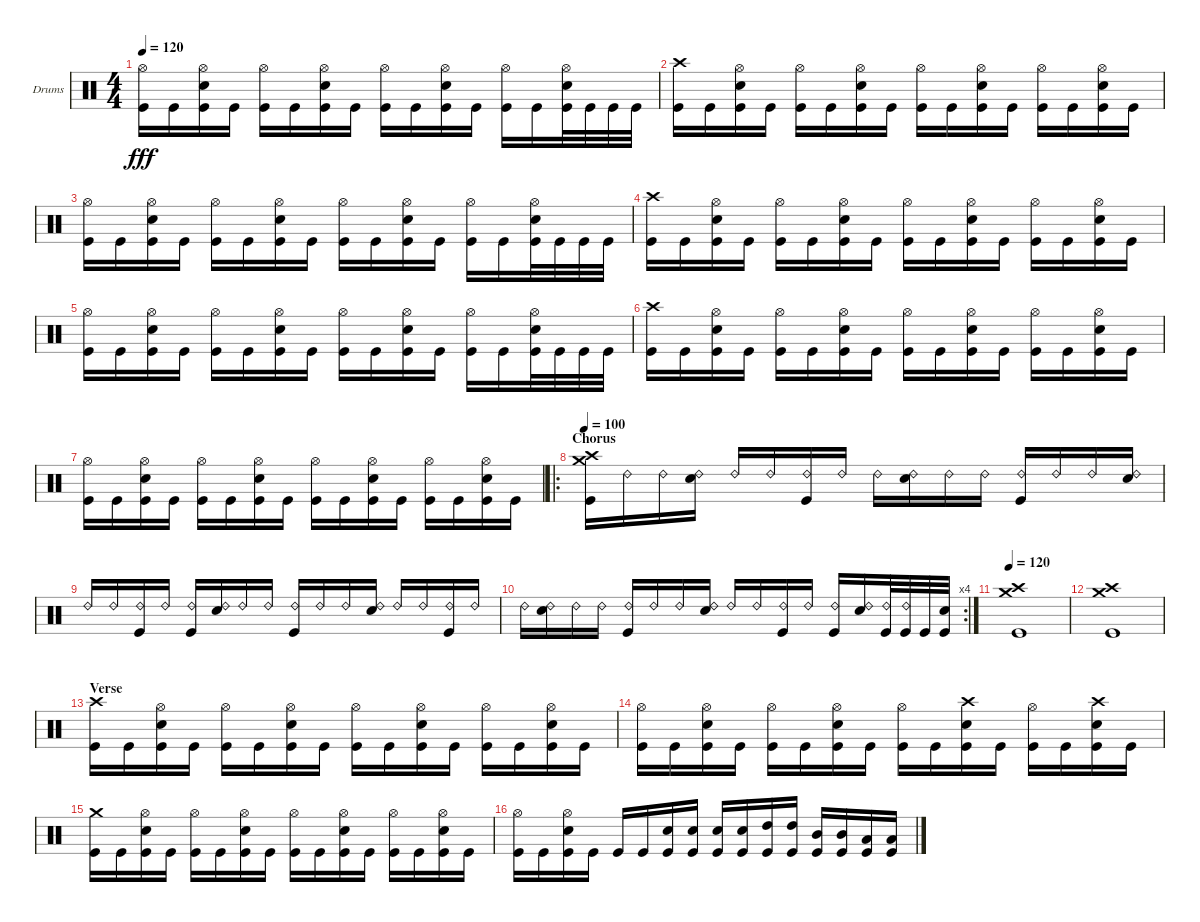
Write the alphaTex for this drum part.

\defaultSystemsLayout 4
\bracketExtendMode groupsimilarinstruments
\firstSystemTrackNameOrientation horizontal
\otherSystemsTrackNameOrientation horizontal
\track ("Jon Larsen" "Drums") {instrument percussion}
\staff {score}
\articulation defaults
\ts (4 4)
\tempo 120
\clef neutral
\scale
0.333333
\ks c
("Kick (hit)" "Hi-Hat (open)").16{dy fff} "Kick (hit)".16 ("Kick (hit)" "Snare (hit) 2" "Hi-Hat (open)").16 "Kick (hit)".16 ("Kick (hit)" "Hi-Hat (open)").16 "Kick (hit)".16 ("Kick (hit)" "Snare (hit) 2" "Hi-Hat (open)").16 "Kick (hit)".16 ("Kick (hit)" "Hi-Hat (open)").16 "Kick (hit)".16 ("Kick (hit)" "Snare (hit) 2" "Hi-Hat (open)").16 "Kick (hit)".16 ("Kick (hit)" "Hi-Hat (open)").16 "Kick (hit)".16 ("Kick (hit)" "Snare (hit) 2" "Hi-Hat (open)").32 "Kick (hit)".32 "Kick (hit)".32 "Kick (hit)".32 |
\scale
0.333333 ("Kick (hit)" "Crash high (hit)").16 "Kick (hit)".16 ("Kick (hit)" "Hi-Hat (open)" "Snare (hit) 2").16 "Kick (hit)".16 ("Kick (hit)" "Hi-Hat (open)").16 "Kick (hit)".16 ("Kick (hit)" "Hi-Hat (open)" "Snare (hit) 2").16 "Kick (hit)".16 ("Kick (hit)" "Hi-Hat (open)").16 "Kick (hit)".16 ("Kick (hit)" "Hi-Hat (open)" "Snare (hit) 2").16 "Kick (hit)".16 ("Kick (hit)" "Hi-Hat (open)").16 "Kick (hit)".16 ("Kick (hit)" "Hi-Hat (open)" "Snare (hit) 2").16 "Kick (hit)".16 |
\scale
0.333333 ("Kick (hit)" "Hi-Hat (open)").16 "Kick (hit)".16 ("Kick (hit)" "Snare (hit) 2" "Hi-Hat (open)").16 "Kick (hit)".16 ("Kick (hit)" "Hi-Hat (open)").16 "Kick (hit)".16 ("Kick (hit)" "Snare (hit) 2" "Hi-Hat (open)").16 "Kick (hit)".16 ("Kick (hit)" "Hi-Hat (open)").16 "Kick (hit)".16 ("Kick (hit)" "Snare (hit) 2" "Hi-Hat (open)").16 "Kick (hit)".16 ("Kick (hit)" "Hi-Hat (open)").16 "Kick (hit)".16 ("Kick (hit)" "Snare (hit) 2" "Hi-Hat (open)").32 "Kick (hit)".32 "Kick (hit)".32 "Kick (hit)".32 |
\scale
0.333333 ("Kick (hit)" "Crash high (hit)").16 "Kick (hit)".16 ("Kick (hit)" "Hi-Hat (open)" "Snare (hit) 2").16 "Kick (hit)".16 ("Kick (hit)" "Hi-Hat (open)").16 "Kick (hit)".16 ("Kick (hit)" "Hi-Hat (open)" "Snare (hit) 2").16 "Kick (hit)".16 ("Kick (hit)" "Hi-Hat (open)").16 "Kick (hit)".16 ("Kick (hit)" "Hi-Hat (open)" "Snare (hit) 2").16 "Kick (hit)".16 ("Kick (hit)" "Hi-Hat (open)").16 "Kick (hit)".16 ("Kick (hit)" "Hi-Hat (open)" "Snare (hit) 2").16 "Kick (hit)".16 |
\scale
0.333333 ("Kick (hit)" "Hi-Hat (open)").16 "Kick (hit)".16 ("Kick (hit)" "Snare (hit) 2" "Hi-Hat (open)").16 "Kick (hit)".16 ("Kick (hit)" "Hi-Hat (open)").16 "Kick (hit)".16 ("Kick (hit)" "Snare (hit) 2" "Hi-Hat (open)").16 "Kick (hit)".16 ("Kick (hit)" "Hi-Hat (open)").16 "Kick (hit)".16 ("Kick (hit)" "Snare (hit) 2" "Hi-Hat (open)").16 "Kick (hit)".16 ("Kick (hit)" "Hi-Hat (open)").16 "Kick (hit)".16 ("Kick (hit)" "Snare (hit) 2" "Hi-Hat (open)").32 "Kick (hit)".32 "Kick (hit)".32 "Kick (hit)".32 |
\scale
0.333333 ("Kick (hit)" "Crash high (hit)").16 "Kick (hit)".16 ("Kick (hit)" "Hi-Hat (open)" "Snare (hit) 2").16 "Kick (hit)".16 ("Kick (hit)" "Hi-Hat (open)").16 "Kick (hit)".16 ("Kick (hit)" "Hi-Hat (open)" "Snare (hit) 2").16 "Kick (hit)".16 ("Kick (hit)" "Hi-Hat (open)").16 "Kick (hit)".16 ("Kick (hit)" "Hi-Hat (open)" "Snare (hit) 2").16 "Kick (hit)".16 ("Kick (hit)" "Hi-Hat (open)").16 "Kick (hit)".16 ("Kick (hit)" "Hi-Hat (open)" "Snare (hit) 2").16 "Kick (hit)".16 |
\scale
0.333333 ("Kick (hit)" "Hi-Hat (open)").16 "Kick (hit)".16 ("Kick (hit)" "Snare (hit) 2" "Hi-Hat (open)").16 "Kick (hit)".16 ("Kick (hit)" "Hi-Hat (open)").16 "Kick (hit)".16 ("Kick (hit)" "Snare (hit) 2" "Hi-Hat (open)").16 "Kick (hit)".16 ("Kick (hit)" "Hi-Hat (open)").16 "Kick (hit)".16 ("Kick (hit)" "Snare (hit) 2" "Hi-Hat (open)").16 "Kick (hit)".16 ("Kick (hit)" "Hi-Hat (open)").16 "Kick (hit)".16 ("Kick (hit)" "Snare (hit) 2" "Hi-Hat (open)").16 "Kick (hit)".16 |
\ro
\section ("" "Chorus")
\tempo 100
\scale
0.365591 ("Crash medium (hit)" "Crash high (hit)" "Kick (hit)").16 "Ride (bell) 2".16 "Ride (bell) 2".16 ("Ride (bell) 2" "Snare (hit) 2").16 "Ride (bell) 2".16 "Ride (bell) 2".16 ("Ride (bell) 2" "Kick (hit)").16 "Ride (bell) 2".16 "Ride (bell) 2".16 ("Ride (bell) 2" "Snare (hit) 2").16 "Ride (bell) 2".16 "Ride (bell) 2".16 ("Ride (bell) 2" "Kick (hit)").16 "Ride (bell) 2".16 "Ride (bell) 2".16 ("Ride (bell) 2" "Snare (hit) 2").16 |
\scale
0.301075 "Ride (bell) 2".16 "Ride (bell) 2".16 ("Ride (bell) 2" "Kick (hit)").16 "Ride (bell) 2".16 ("Ride (bell) 2" "Kick (hit)").16 ("Ride (bell) 2" "Snare (hit) 2").16 "Ride (bell) 2".16 "Ride (bell) 2".16 ("Ride (bell) 2" "Kick (hit)").16 "Ride (bell) 2".16 "Ride (bell) 2".16 ("Ride (bell) 2" "Snare (hit) 2").16 "Ride (bell) 2".16 "Ride (bell) 2".16 ("Ride (bell) 2" "Kick (hit)").16 "Ride (bell) 2".16 |
\rc 4
\scale
0.333333 "Ride (bell) 2".16 ("Ride (bell) 2" "Snare (hit) 2").16 "Ride (bell) 2".16 "Ride (bell) 2".16 ("Ride (bell) 2" "Kick (hit)").16 "Ride (bell) 2".16 "Ride (bell) 2".16 ("Ride (bell) 2" "Snare (hit) 2").16 "Ride (bell) 2".16 "Ride (bell) 2".16 ("Ride (bell) 2" "Kick (hit)").16 "Ride (bell) 2".16 ("Ride (bell) 2" "Kick (hit)").16 ("Ride (bell) 2" "Snare (hit) 2").16 ("Ride (bell) 2" "Kick (hit)").32 ("Ride (bell) 2" "Kick (hit)").32 "Kick (hit)".32 ("Kick (hit)" "Snare (hit) 2").32 |
\tempo 120
\scale
0.333333 ("Kick (hit)" "Crash medium (hit)" "Crash high (hit)").1 |
\scale
0.333333 ("Crash high (hit)" "Crash medium (hit)" "Kick (hit)").1 |
\section ("" "Verse")
\scale
0.333333 ("Kick (hit)" "Crash high (hit)").16 "Kick (hit)".16 ("Kick (hit)" "Hi-Hat (open)" "Snare (hit) 2").16 "Kick (hit)".16 ("Kick (hit)" "Hi-Hat (open)").16 "Kick (hit)".16 ("Kick (hit)" "Hi-Hat (open)" "Snare (hit) 2").16 "Kick (hit)".16 ("Kick (hit)" "Hi-Hat (open)").16 "Kick (hit)".16 ("Kick (hit)" "Hi-Hat (open)" "Snare (hit) 2").16 "Kick (hit)".16 ("Kick (hit)" "Hi-Hat (open)").16 "Kick (hit)".16 ("Kick (hit)" "Hi-Hat (open)" "Snare (hit) 2").16 "Kick (hit)".16 |
\scale
0.333333 ("Kick (hit)" "Hi-Hat (open)").16 "Kick (hit)".16 ("Kick (hit)" "Snare (hit) 2" "Hi-Hat (open)").16 "Kick (hit)".16 ("Kick (hit)" "Hi-Hat (open)").16 "Kick (hit)".16 ("Kick (hit)" "Snare (hit) 2" "Hi-Hat (open)").16 "Kick (hit)".16 ("Kick (hit)" "Hi-Hat (open)").16 "Kick (hit)".16 ("Kick (hit)" "Snare (hit) 2" "Crash high (hit)").16 "Kick (hit)".16 ("Kick (hit)" "Hi-Hat (open)").16 "Kick (hit)".16 ("Kick (hit)" "Snare (hit) 2" "Crash high (hit)").16 "Kick (hit)".16 |
\scale
0.333333 ("Kick (hit)" "Crash medium (hit)").16 "Kick (hit)".16 ("Kick (hit)" "Snare (hit) 2" "Hi-Hat (open)").16 "Kick (hit)".16 ("Kick (hit)" "Hi-Hat (open)").16 "Kick (hit)".16 ("Kick (hit)" "Snare (hit) 2" "Hi-Hat (open)").16 "Kick (hit)".16 ("Kick (hit)" "Hi-Hat (open)").16 "Kick (hit)".16 ("Kick (hit)" "Snare (hit) 2" "Hi-Hat (open)").16 "Kick (hit)".16 ("Kick (hit)" "Hi-Hat (open)").16 "Kick (hit)".16 ("Kick (hit)" "Snare (hit) 2" "Hi-Hat (open)").16 "Kick (hit)".16 |
\scale
0.333333 ("Kick (hit)" "Hi-Hat (open)").16 "Kick (hit)".16 ("Kick (hit)" "Hi-Hat (open)" "Snare (hit) 2").16 "Kick (hit)".16 "Kick (hit)".16 "Kick (hit)".16 ("Kick (hit)" "Snare (hit) 2").16 ("Kick (hit)" "Snare (hit) 2").16 ("Kick (hit)" "Snare (hit) 2").16 ("Kick (hit)" "Snare (hit) 2").16 ("Kick (hit)" "High Tom (hit)").16 ("Kick (hit)" "High Tom (hit)").16 ("Kick (hit)" "Mid Tom (hit)").16 ("Kick (hit)" "Mid Tom (hit)").16 ("Kick (hit)" "Low Tom (hit)").16 ("Kick (hit)" "Low Tom (hit)").16
